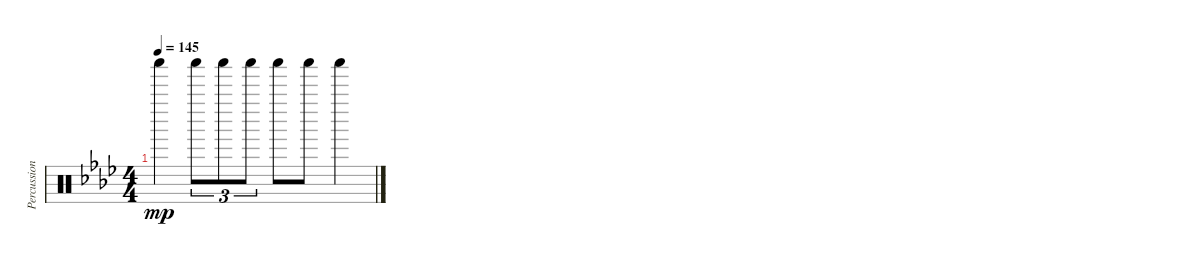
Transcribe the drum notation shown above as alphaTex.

\track ("Percussion Synth" "Percussion") {instrument percussion}
\staff {score}
\articulation defaults
\ts (4 4)
\tempo 145
\clef neutral
\ks ab "Shaker (hit)".4{dy mp} "Shaker (hit)".8{tu (3 2)} "Shaker (hit)".8{tu (3 2)} "Shaker (hit)".8{tu (3 2)} "Shaker (hit)".8 "Shaker (hit)".8 "Shaker (hit)".4
